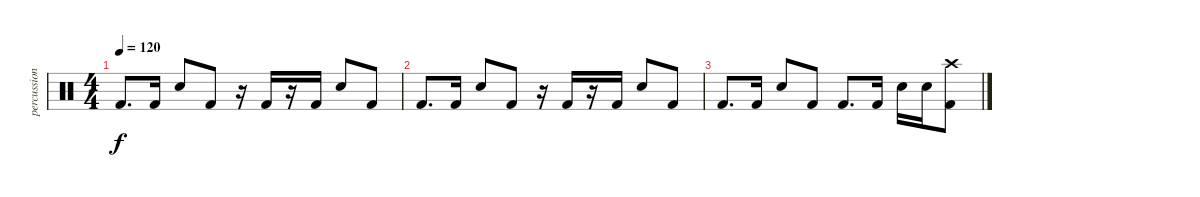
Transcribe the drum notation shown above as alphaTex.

\track ("percussion" "percussion") {instrument percussion}
\staff {score}
\articulation defaults
\ts (4 4)
\tempo 120
\clef neutral
\ks c "Kick (hit) 2".8{d dy f} "Kick (hit) 2".16 "Snare (hit) 2".8 "Kick (hit) 2".8
r.16 "Kick (hit) 2".16 r.16 "Kick (hit) 2".16 "Snare (hit) 2".8 "Kick (hit) 2".8 |
"Kick (hit) 2".8{d} "Kick (hit) 2".16 "Snare (hit) 2".8 "Kick (hit) 2".8 r.16 "Kick (hit) 2".16 r.16 "Kick (hit) 2".16 "Snare (hit) 2".8 "Kick (hit) 2".8 |
"Kick (hit) 2".8{d} "Kick (hit) 2".16 "Snare (hit) 2".8 "Kick (hit) 2".8 "Kick (hit) 2".8{d} "Kick (hit) 2".16 "Snare (hit) 2".16 "Snare (hit) 2".16 ("Crash high (hit)" "Kick (hit) 2").8
